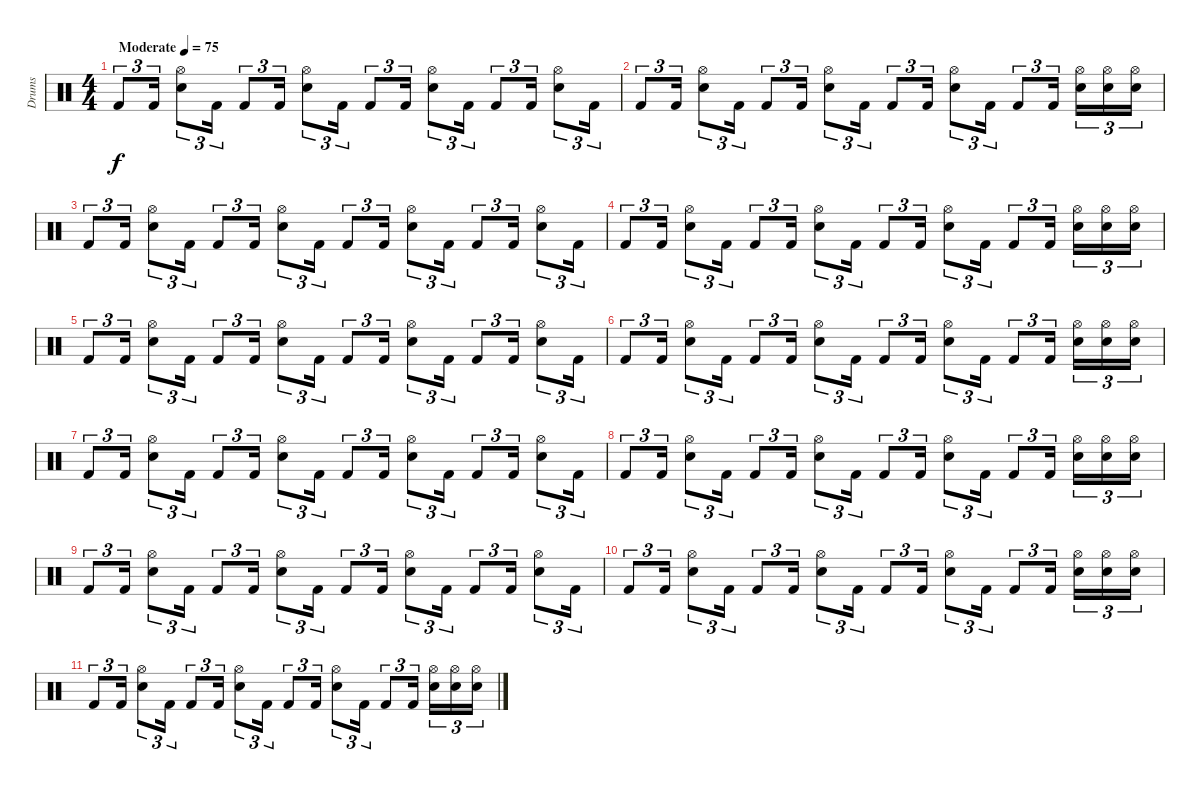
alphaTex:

\track ("Drums" "Drums") {instrument percussion}
\staff {score}
\articulation defaults
\ts (4 4)
\tempo (75 "Moderate")
\clef neutral
\ks c "Kick (hit) 2".8{tu (3 2) dy f} "Kick (hit) 2".16{tu (3 2)}
("Hi-Hat (open)" "Snare (hit) 2").8{tu (3 2)} "Kick (hit) 2".16{tu (3 2)} "Kick (hit) 2".8{tu (3 2)} "Kick (hit) 2".16{tu (3 2)} ("Hi-Hat (open)" "Snare (hit) 2").8{tu (3 2)} "Kick (hit) 2".16{tu (3 2)} "Kick (hit) 2".8{tu (3 2)} "Kick (hit) 2".16{tu (3 2)} ("Hi-Hat (open)" "Snare (hit) 2").8{tu (3 2)} "Kick (hit) 2".16{tu (3 2)} "Kick (hit) 2".8{tu (3 2)} "Kick (hit) 2".16{tu (3 2)} ("Hi-Hat (open)" "Snare (hit) 2").8{tu (3 2)} "Kick (hit) 2".16{tu (3 2)} |
"Kick (hit) 2".8{tu (3 2)} "Kick (hit) 2".16{tu (3 2)} ("Hi-Hat (open)" "Snare (hit) 2").8{tu (3 2)} "Kick (hit) 2".16{tu (3 2)} "Kick (hit) 2".8{tu (3 2)} "Kick (hit) 2".16{tu (3 2)} ("Hi-Hat (open)" "Snare (hit) 2").8{tu (3 2)} "Kick (hit) 2".16{tu (3 2)} "Kick (hit) 2".8{tu (3 2)} "Kick (hit) 2".16{tu (3 2)} ("Hi-Hat (open)" "Snare (hit) 2").8{tu (3 2)} "Kick (hit) 2".16{tu (3 2)} "Kick (hit) 2".8{tu (3 2)} "Kick (hit) 2".16{tu (3 2) beam splitsecondary} ("Hi-Hat (open)" "Snare (hit) 2").16{tu (3 2)} ("Hi-Hat (open)" "Snare (hit) 2").16{tu (3 2)} ("Hi-Hat (open)" "Snare (hit) 2").16{tu (3 2)} |
"Kick (hit) 2".8{tu (3 2)} "Kick (hit) 2".16{tu (3 2)} ("Hi-Hat (open)" "Snare (hit) 2").8{tu (3 2)} "Kick (hit) 2".16{tu (3 2)} "Kick (hit) 2".8{tu (3 2)} "Kick (hit) 2".16{tu (3 2)} ("Hi-Hat (open)" "Snare (hit) 2").8{tu (3 2)} "Kick (hit) 2".16{tu (3 2)} "Kick (hit) 2".8{tu (3 2)} "Kick (hit) 2".16{tu (3 2)} ("Hi-Hat (open)" "Snare (hit) 2").8{tu (3 2)} "Kick (hit) 2".16{tu (3 2)} "Kick (hit) 2".8{tu (3 2)} "Kick (hit) 2".16{tu (3 2)} ("Hi-Hat (open)" "Snare (hit) 2").8{tu (3 2)} "Kick (hit) 2".16{tu (3 2)} |
"Kick (hit) 2".8{tu (3 2)} "Kick (hit) 2".16{tu (3 2)} ("Hi-Hat (open)" "Snare (hit) 2").8{tu (3 2)} "Kick (hit) 2".16{tu (3 2)} "Kick (hit) 2".8{tu (3 2)} "Kick (hit) 2".16{tu (3 2)} ("Hi-Hat (open)" "Snare (hit) 2").8{tu (3 2)} "Kick (hit) 2".16{tu (3 2)} "Kick (hit) 2".8{tu (3 2)} "Kick (hit) 2".16{tu (3 2)} ("Hi-Hat (open)" "Snare (hit) 2").8{tu (3 2)} "Kick (hit) 2".16{tu (3 2)} "Kick (hit) 2".8{tu (3 2)} "Kick (hit) 2".16{tu (3 2) beam splitsecondary} ("Hi-Hat (open)" "Snare (hit) 2").16{tu (3 2)} ("Hi-Hat (open)" "Snare (hit) 2").16{tu (3 2)} ("Hi-Hat (open)" "Snare (hit) 2").16{tu (3 2)} |
"Kick (hit) 2".8{tu (3 2)} "Kick (hit) 2".16{tu (3 2)} ("Hi-Hat (open)" "Snare (hit) 2").8{tu (3 2)} "Kick (hit) 2".16{tu (3 2)} "Kick (hit) 2".8{tu (3 2)} "Kick (hit) 2".16{tu (3 2)} ("Hi-Hat (open)" "Snare (hit) 2").8{tu (3 2)} "Kick (hit) 2".16{tu (3 2)} "Kick (hit) 2".8{tu (3 2)} "Kick (hit) 2".16{tu (3 2)} ("Hi-Hat (open)" "Snare (hit) 2").8{tu (3 2)} "Kick (hit) 2".16{tu (3 2)} "Kick (hit) 2".8{tu (3 2)} "Kick (hit) 2".16{tu (3 2)} ("Hi-Hat (open)" "Snare (hit) 2").8{tu (3 2)} "Kick (hit) 2".16{tu (3 2)} |
"Kick (hit) 2".8{tu (3 2)} "Kick (hit) 2".16{tu (3 2)} ("Hi-Hat (open)" "Snare (hit) 2").8{tu (3 2)} "Kick (hit) 2".16{tu (3 2)} "Kick (hit) 2".8{tu (3 2)} "Kick (hit) 2".16{tu (3 2)} ("Hi-Hat (open)" "Snare (hit) 2").8{tu (3 2)} "Kick (hit) 2".16{tu (3 2)} "Kick (hit) 2".8{tu (3 2)} "Kick (hit) 2".16{tu (3 2)} ("Hi-Hat (open)" "Snare (hit) 2").8{tu (3 2)} "Kick (hit) 2".16{tu (3 2)} "Kick (hit) 2".8{tu (3 2)} "Kick (hit) 2".16{tu (3 2) beam splitsecondary} ("Hi-Hat (open)" "Snare (hit) 2").16{tu (3 2)} ("Hi-Hat (open)" "Snare (hit) 2").16{tu (3 2)} ("Hi-Hat (open)" "Snare (hit) 2").16{tu (3 2)} |
"Kick (hit) 2".8{tu (3 2)} "Kick (hit) 2".16{tu (3 2)} ("Hi-Hat (open)" "Snare (hit) 2").8{tu (3 2)} "Kick (hit) 2".16{tu (3 2)} "Kick (hit) 2".8{tu (3 2)} "Kick (hit) 2".16{tu (3 2)} ("Hi-Hat (open)" "Snare (hit) 2").8{tu (3 2)} "Kick (hit) 2".16{tu (3 2)} "Kick (hit) 2".8{tu (3 2)} "Kick (hit) 2".16{tu (3 2)} ("Hi-Hat (open)" "Snare (hit) 2").8{tu (3 2)} "Kick (hit) 2".16{tu (3 2)} "Kick (hit) 2".8{tu (3 2)} "Kick (hit) 2".16{tu (3 2)} ("Hi-Hat (open)" "Snare (hit) 2").8{tu (3 2)} "Kick (hit) 2".16{tu (3 2)} |
"Kick (hit) 2".8{tu (3 2)} "Kick (hit) 2".16{tu (3 2)} ("Hi-Hat (open)" "Snare (hit) 2").8{tu (3 2)} "Kick (hit) 2".16{tu (3 2)} "Kick (hit) 2".8{tu (3 2)} "Kick (hit) 2".16{tu (3 2)} ("Hi-Hat (open)" "Snare (hit) 2").8{tu (3 2)} "Kick (hit) 2".16{tu (3 2)} "Kick (hit) 2".8{tu (3 2)} "Kick (hit) 2".16{tu (3 2)} ("Hi-Hat (open)" "Snare (hit) 2").8{tu (3 2)} "Kick (hit) 2".16{tu (3 2)} "Kick (hit) 2".8{tu (3 2)} "Kick (hit) 2".16{tu (3 2) beam splitsecondary} ("Hi-Hat (open)" "Snare (hit) 2").16{tu (3 2)} ("Hi-Hat (open)" "Snare (hit) 2").16{tu (3 2)} ("Hi-Hat (open)" "Snare (hit) 2").16{tu (3 2)} |
"Kick (hit) 2".8{tu (3 2)} "Kick (hit) 2".16{tu (3 2)} ("Hi-Hat (open)" "Snare (hit) 2").8{tu (3 2)} "Kick (hit) 2".16{tu (3 2)} "Kick (hit) 2".8{tu (3 2)} "Kick (hit) 2".16{tu (3 2)} ("Hi-Hat (open)" "Snare (hit) 2").8{tu (3 2)} "Kick (hit) 2".16{tu (3 2)} "Kick (hit) 2".8{tu (3 2)} "Kick (hit) 2".16{tu (3 2)} ("Hi-Hat (open)" "Snare (hit) 2").8{tu (3 2)} "Kick (hit) 2".16{tu (3 2)} "Kick (hit) 2".8{tu (3 2)} "Kick (hit) 2".16{tu (3 2)} ("Hi-Hat (open)" "Snare (hit) 2").8{tu (3 2)} "Kick (hit) 2".16{tu (3 2)} |
"Kick (hit) 2".8{tu (3 2)} "Kick (hit) 2".16{tu (3 2)} ("Hi-Hat (open)" "Snare (hit) 2").8{tu (3 2)} "Kick (hit) 2".16{tu (3 2)} "Kick (hit) 2".8{tu (3 2)} "Kick (hit) 2".16{tu (3 2)} ("Hi-Hat (open)" "Snare (hit) 2").8{tu (3 2)} "Kick (hit) 2".16{tu (3 2)} "Kick (hit) 2".8{tu (3 2)} "Kick (hit) 2".16{tu (3 2)} ("Hi-Hat (open)" "Snare (hit) 2").8{tu (3 2)} "Kick (hit) 2".16{tu (3 2)} "Kick (hit) 2".8{tu (3 2)} "Kick (hit) 2".16{tu (3 2) beam splitsecondary} ("Hi-Hat (open)" "Snare (hit) 2").16{tu (3 2)} ("Hi-Hat (open)" "Snare (hit) 2").16{tu (3 2)} ("Hi-Hat (open)" "Snare (hit) 2").16{tu (3 2)} |
"Kick (hit) 2".8{tu (3 2)} "Kick (hit) 2".16{tu (3 2)} ("Hi-Hat (open)" "Snare (hit) 2").8{tu (3 2)} "Kick (hit) 2".16{tu (3 2)} "Kick (hit) 2".8{tu (3 2)} "Kick (hit) 2".16{tu (3 2)} ("Hi-Hat (open)" "Snare (hit) 2").8{tu (3 2)} "Kick (hit) 2".16{tu (3 2)} "Kick (hit) 2".8{tu (3 2)} "Kick (hit) 2".16{tu (3 2)} ("Hi-Hat (open)" "Snare (hit) 2").8{tu (3 2)} "Kick (hit) 2".16{tu (3 2)} "Kick (hit) 2".8{tu (3 2)} "Kick (hit) 2".16{tu (3 2) beam splitsecondary} ("Hi-Hat (open)" "Snare (hit) 2").16{tu (3 2)} ("Hi-Hat (open)" "Snare (hit) 2").16{tu (3 2)} ("Hi-Hat (open)" "Snare (hit) 2").16{tu (3 2)}
